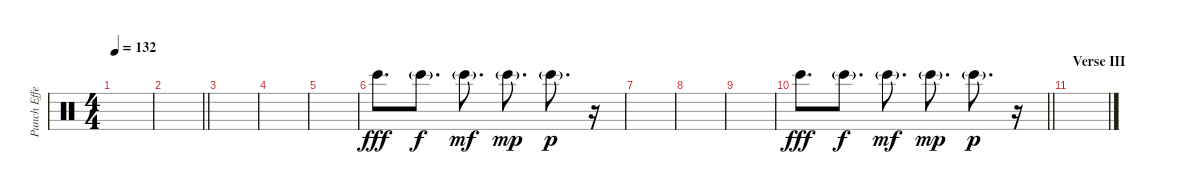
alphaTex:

\track ("Punch Effect" "Punch Effe") {instrument percussion}
\staff {score}
\articulation defaults
\ts (4 4)
\tempo 132
\clef neutral
\ks c
|
\barLineRight lightlight
|
\section ("" "")
|
|
|
"Bongo High (hit)".8{d dy fff} "Bongo High (hit)"{g}.8{d dy f} "Bongo High (hit)"{g}.8{d dy mf} "Bongo High (hit)"{g}.8{d dy mp} "Bongo High (hit)"{g}.8{d dy p} r.16 |
|
|
|
\barLineRight lightlight "Bongo High (hit)".8{d dy fff} "Bongo High (hit)"{g}.8{d dy f} "Bongo High (hit)"{g}.8{d dy mf} "Bongo High (hit)"{g}.8{d dy mp} "Bongo High (hit)"{g}.8{d dy p}
r.16 |
\section ("" "Verse III")
